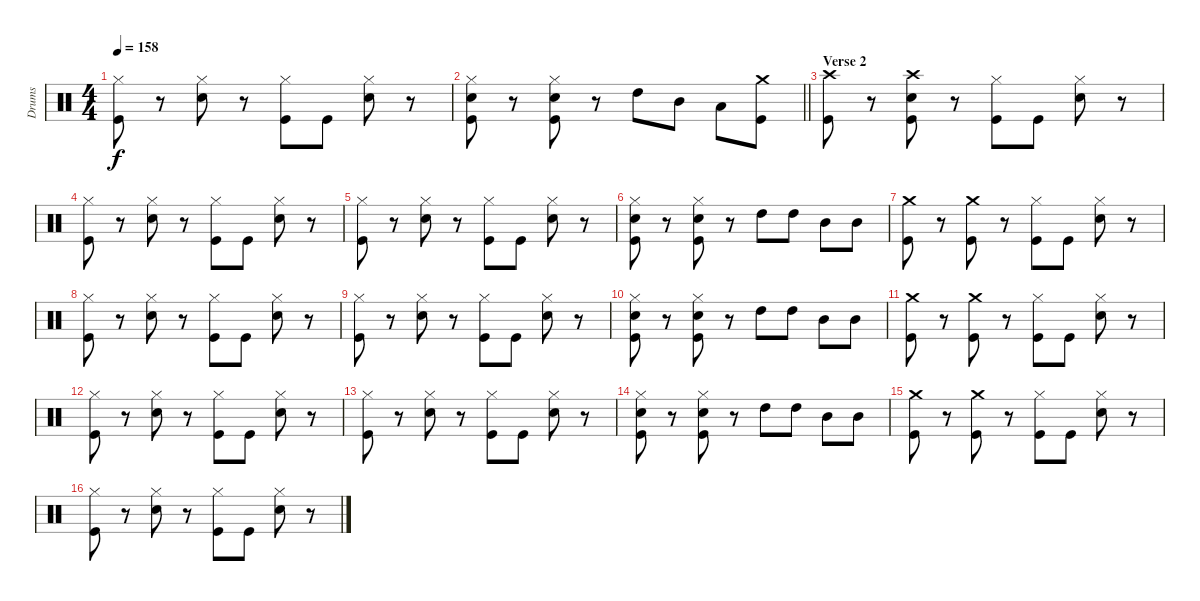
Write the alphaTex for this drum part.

\track ("Drums" "Drums") {instrument percussion}
\staff {score}
\articulation defaults
\ts (4 4)
\tempo 158
\clef neutral
\ks c
("Hi-Hat (closed)" "Kick (hit)").8{dy f} r.8 ("Hi-Hat (closed)" "Snare (hit) 2").8 r.8 ("Hi-Hat (closed)" "Kick (hit)").8 "Kick (hit)".8 ("Hi-Hat (closed)" "Snare (hit) 2").8 r.8 |
\barLineRight lightlight
("Hi-Hat (closed)" "Snare (hit) 2" "Kick (hit)").8 r.8 ("Hi-Hat (closed)" "Snare (hit) 2" "Kick (hit)").8 r.8 "High Tom (hit)".8 "Mid Tom (hit)".8 "Low Tom (hit)".8 ("Crash medium (hit)" "Kick (hit)").8 |
\section ("" "Verse 2")
("Crash high (hit)" "Kick (hit)").8 r.8 ("Crash high (hit)" "Snare (hit) 2" "Kick (hit)").8 r.8 ("Hi-Hat (closed)" "Kick (hit)").8 "Kick (hit)".8 ("Hi-Hat (closed)" "Snare (hit) 2").8 r.8 |
("Hi-Hat (closed)" "Kick (hit)").8 r.8 ("Hi-Hat (closed)" "Snare (hit) 2").8 r.8 ("Hi-Hat (closed)" "Kick (hit)").8 "Kick (hit)".8 ("Hi-Hat (closed)" "Snare (hit) 2").8 r.8 |
("Hi-Hat (closed)" "Kick (hit)").8 r.8 ("Hi-Hat (closed)" "Snare (hit) 2").8 r.8 ("Hi-Hat (closed)" "Kick (hit)").8 "Kick (hit)".8 ("Hi-Hat (closed)" "Snare (hit) 2").8 r.8 |
("Hi-Hat (closed)" "Snare (hit) 2" "Kick (hit)").8 r.8 ("Hi-Hat (closed)" "Snare (hit) 2" "Kick (hit)").8 r.8 "High Tom (hit)".8 "High Tom (hit)".8 "Mid Tom (hit)".8 "Mid Tom (hit)".8 |
("Crash medium (hit)" "Kick (hit)").8 r.8 ("Crash medium (hit)" "Kick (hit)").8 r.8 ("Hi-Hat (closed)" "Kick (hit)").8 "Kick (hit)".8 ("Hi-Hat (closed)" "Snare (hit) 2").8 r.8 |
("Hi-Hat (closed)" "Kick (hit)").8 r.8 ("Hi-Hat (closed)" "Snare (hit) 2").8 r.8 ("Hi-Hat (closed)" "Kick (hit)").8 "Kick (hit)".8 ("Hi-Hat (closed)" "Snare (hit) 2").8 r.8 |
("Hi-Hat (closed)" "Kick (hit)").8 r.8 ("Hi-Hat (closed)" "Snare (hit) 2").8 r.8 ("Hi-Hat (closed)" "Kick (hit)").8 "Kick (hit)".8 ("Hi-Hat (closed)" "Snare (hit) 2").8 r.8 |
("Hi-Hat (closed)" "Snare (hit) 2" "Kick (hit)").8 r.8 ("Hi-Hat (closed)" "Snare (hit) 2" "Kick (hit)").8 r.8 "High Tom (hit)".8 "High Tom (hit)".8 "Mid Tom (hit)".8 "Mid Tom (hit)".8 |
("Crash medium (hit)" "Kick (hit)").8 r.8 ("Crash medium (hit)" "Kick (hit)").8 r.8 ("Hi-Hat (closed)" "Kick (hit)").8 "Kick (hit)".8 ("Hi-Hat (closed)" "Snare (hit) 2").8 r.8 |
("Hi-Hat (closed)" "Kick (hit)").8 r.8 ("Hi-Hat (closed)" "Snare (hit) 2").8 r.8 ("Hi-Hat (closed)" "Kick (hit)").8 "Kick (hit)".8 ("Hi-Hat (closed)" "Snare (hit) 2").8 r.8 |
("Hi-Hat (closed)" "Kick (hit)").8 r.8 ("Hi-Hat (closed)" "Snare (hit) 2").8 r.8 ("Hi-Hat (closed)" "Kick (hit)").8 "Kick (hit)".8 ("Hi-Hat (closed)" "Snare (hit) 2").8 r.8 |
("Hi-Hat (closed)" "Snare (hit) 2" "Kick (hit)").8 r.8 ("Hi-Hat (closed)" "Snare (hit) 2" "Kick (hit)").8 r.8 "High Tom (hit)".8 "High Tom (hit)".8 "Mid Tom (hit)".8 "Mid Tom (hit)".8 |
("Crash medium (hit)" "Kick (hit)").8 r.8 ("Crash medium (hit)" "Kick (hit)").8 r.8 ("Hi-Hat (closed)" "Kick (hit)").8 "Kick (hit)".8 ("Hi-Hat (closed)" "Snare (hit) 2").8 r.8 |
("Hi-Hat (closed)" "Kick (hit)").8 r.8 ("Hi-Hat (closed)" "Snare (hit) 2").8 r.8 ("Hi-Hat (closed)" "Kick (hit)").8 "Kick (hit)".8 ("Hi-Hat (closed)" "Snare (hit) 2").8 r.8
